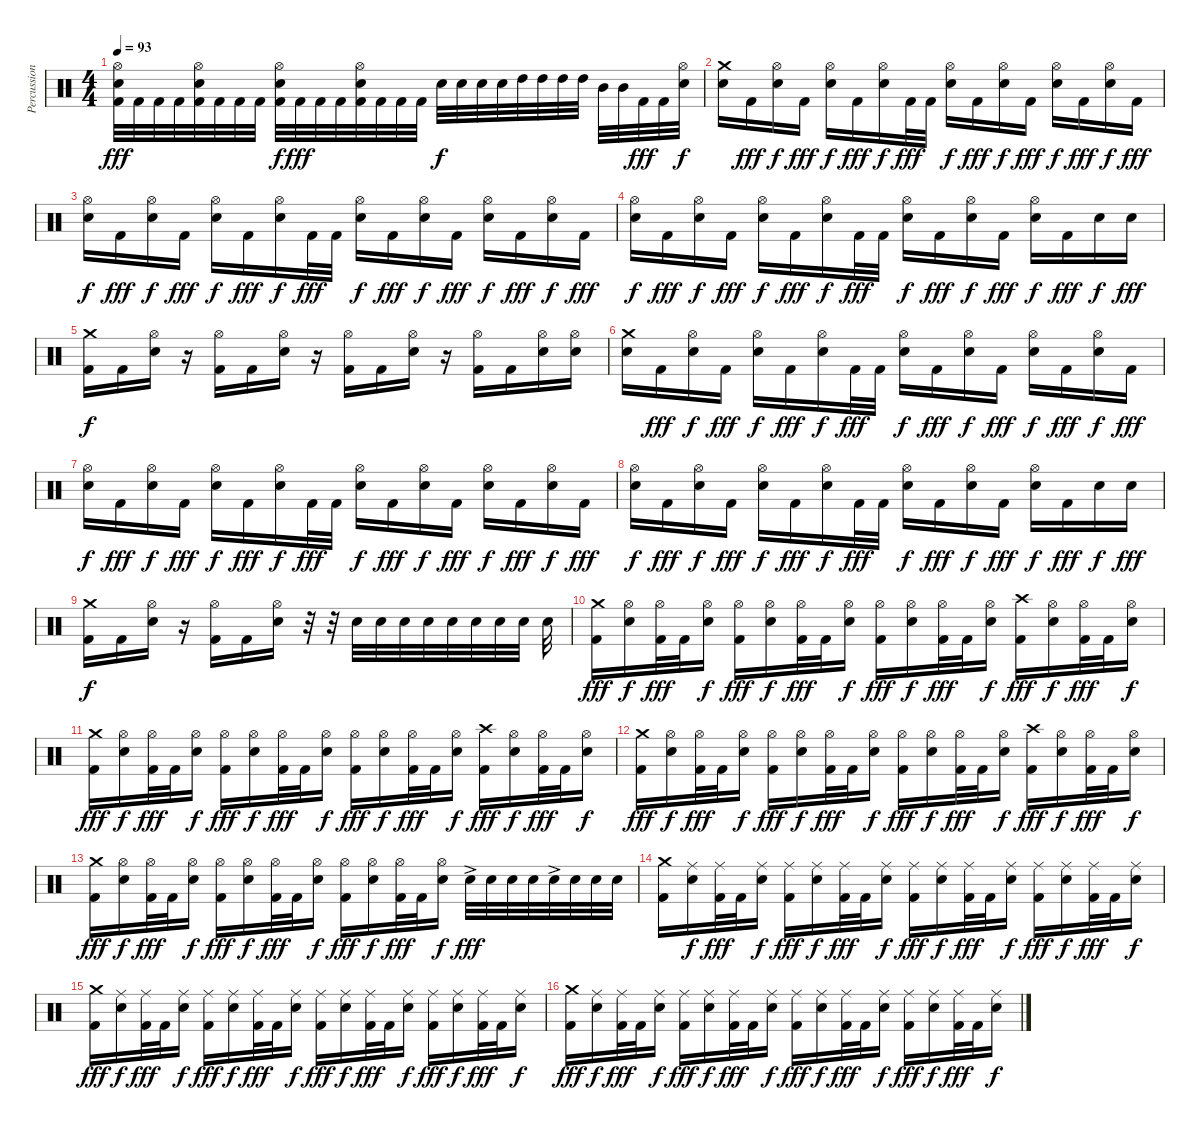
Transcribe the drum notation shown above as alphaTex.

\track ("Percussion" "Percussion") {instrument percussion}
\staff {score}
\articulation defaults
\ts (4 4)
\tempo 93
\clef neutral
\ks c
("Hi-Hat (open)" "Kick (hit) 2" "Snare (hit) 2").32{dy fff} "Kick (hit) 2".32 "Kick (hit) 2".32 "Kick (hit) 2".32 ("Hi-Hat (open)" "Kick (hit) 2" "Snare (hit) 2").32 "Kick (hit) 2".32 "Kick (hit) 2".32 "Kick (hit) 2".32 ("Hi-Hat (open)" "Kick (hit) 2" "Snare (hit) 2").32{dy f} "Kick (hit) 2".32{dy fff} "Kick (hit) 2".32 "Kick (hit) 2".32 ("Hi-Hat (open)" "Kick (hit) 2" "Snare (hit) 2").32 "Kick (hit) 2".32 "Kick (hit) 2".32 "Kick (hit) 2".32 "Snare (hit) 2".32{dy f} "Snare (hit) 2".32 "Snare (hit) 2".32 "Snare (hit) 2".32 "High Tom (hit)".32 "High Tom (hit)".32 "High Tom (hit)".32 "High Tom (hit)".32 "Mid Tom (hit)".32 "Mid Tom (hit)".32 "Kick (hit) 2".32{dy fff} "Kick (hit) 2".32 ("Hi-Hat (open)" "Snare (hit) 2").32{dy f} |
("Crash medium (hit)" "Snare (hit) 2").16 "Kick (hit) 2".16{dy fff} ("Hi-Hat (open)" "Snare (hit) 2").16{dy f} "Kick (hit) 2".16{dy fff} ("Hi-Hat (open)" "Snare (hit) 2").16{dy f} "Kick (hit) 2".16{dy fff} ("Hi-Hat (open)" "Snare (hit) 2").16{dy f} "Kick (hit) 2".32{dy fff} "Kick (hit) 2".32 ("Hi-Hat (open)" "Snare (hit) 2").16{dy f} "Kick (hit) 2".16{dy fff} ("Hi-Hat (open)" "Snare (hit) 2").16{dy f} "Kick (hit) 2".16{dy fff} ("Hi-Hat (open)" "Snare (hit) 2").16{dy f} "Kick (hit) 2".16{dy fff} ("Hi-Hat (open)" "Snare (hit) 2").16{dy f} "Kick (hit) 2".16{dy fff} |
("Hi-Hat (open)" "Snare (hit) 2").16{dy f} "Kick (hit) 2".16{dy fff} ("Hi-Hat (open)" "Snare (hit) 2").16{dy f} "Kick (hit) 2".16{dy fff} ("Hi-Hat (open)" "Snare (hit) 2").16{dy f} "Kick (hit) 2".16{dy fff} ("Hi-Hat (open)" "Snare (hit) 2").16{dy f} "Kick (hit) 2".32{dy fff} "Kick (hit) 2".32 ("Hi-Hat (open)" "Snare (hit) 2").16{dy f} "Kick (hit) 2".16{dy fff} ("Hi-Hat (open)" "Snare (hit) 2").16{dy f} "Kick (hit) 2".16{dy fff} ("Hi-Hat (open)" "Snare (hit) 2").16{dy f} "Kick (hit) 2".16{dy fff} ("Hi-Hat (open)" "Snare (hit) 2").16{dy f} "Kick (hit) 2".16{dy fff} |
("Hi-Hat (open)" "Snare (hit) 2").16{dy f} "Kick (hit) 2".16{dy fff} ("Hi-Hat (open)" "Snare (hit) 2").16{dy f} "Kick (hit) 2".16{dy fff} ("Hi-Hat (open)" "Snare (hit) 2").16{dy f} "Kick (hit) 2".16{dy fff} ("Hi-Hat (open)" "Snare (hit) 2").16{dy f} "Kick (hit) 2".32{dy fff} "Kick (hit) 2".32 ("Hi-Hat (open)" "Snare (hit) 2").16{dy f} "Kick (hit) 2".16{dy fff} ("Hi-Hat (open)" "Snare (hit) 2").16{dy f} "Kick (hit) 2".16{dy fff} ("Hi-Hat (open)" "Snare (hit) 2").16{dy f} "Kick (hit) 2".16{dy fff} "Snare (hit) 2".16{dy f} "Snare (hit) 2".16{dy fff} |
("Crash medium (hit)" "Kick (hit) 2").16{dy f} "Kick (hit) 2".16 ("Hi-Hat (open)" "Snare (hit) 2").16 r.16 ("Hi-Hat (open)" "Kick (hit) 2").16 "Kick (hit) 2".16 ("Hi-Hat (open)" "Snare (hit) 2").16 r.16 ("Hi-Hat (open)" "Kick (hit) 2").16 "Kick (hit) 2".16 ("Hi-Hat (open)" "Snare (hit) 2").16 r.16 ("Hi-Hat (open)" "Kick (hit) 2").16 "Kick (hit) 2".16 ("Hi-Hat (open)" "Snare (hit) 2").16 ("Hi-Hat (open)" "Snare (hit) 2").16 |
("Crash medium (hit)" "Snare (hit) 2").16 "Kick (hit) 2".16{dy fff} ("Hi-Hat (open)" "Snare (hit) 2").16{dy f} "Kick (hit) 2".16{dy fff} ("Hi-Hat (open)" "Snare (hit) 2").16{dy f} "Kick (hit) 2".16{dy fff} ("Hi-Hat (open)" "Snare (hit) 2").16{dy f} "Kick (hit) 2".32{dy fff} "Kick (hit) 2".32 ("Hi-Hat (open)" "Snare (hit) 2").16{dy f} "Kick (hit) 2".16{dy fff} ("Hi-Hat (open)" "Snare (hit) 2").16{dy f} "Kick (hit) 2".16{dy fff} ("Hi-Hat (open)" "Snare (hit) 2").16{dy f} "Kick (hit) 2".16{dy fff} ("Hi-Hat (open)" "Snare (hit) 2").16{dy f} "Kick (hit) 2".16{dy fff} |
("Hi-Hat (open)" "Snare (hit) 2").16{dy f} "Kick (hit) 2".16{dy fff} ("Hi-Hat (open)" "Snare (hit) 2").16{dy f} "Kick (hit) 2".16{dy fff} ("Hi-Hat (open)" "Snare (hit) 2").16{dy f} "Kick (hit) 2".16{dy fff} ("Hi-Hat (open)" "Snare (hit) 2").16{dy f} "Kick (hit) 2".32{dy fff} "Kick (hit) 2".32 ("Hi-Hat (open)" "Snare (hit) 2").16{dy f} "Kick (hit) 2".16{dy fff} ("Hi-Hat (open)" "Snare (hit) 2").16{dy f} "Kick (hit) 2".16{dy fff} ("Hi-Hat (open)" "Snare (hit) 2").16{dy f} "Kick (hit) 2".16{dy fff} ("Hi-Hat (open)" "Snare (hit) 2").16{dy f} "Kick (hit) 2".16{dy fff} |
("Hi-Hat (open)" "Snare (hit) 2").16{dy f} "Kick (hit) 2".16{dy fff} ("Hi-Hat (open)" "Snare (hit) 2").16{dy f} "Kick (hit) 2".16{dy fff} ("Hi-Hat (open)" "Snare (hit) 2").16{dy f} "Kick (hit) 2".16{dy fff} ("Hi-Hat (open)" "Snare (hit) 2").16{dy f} "Kick (hit) 2".32{dy fff} "Kick (hit) 2".32 ("Hi-Hat (open)" "Snare (hit) 2").16{dy f} "Kick (hit) 2".16{dy fff} ("Hi-Hat (open)" "Snare (hit) 2").16{dy f} "Kick (hit) 2".16{dy fff} ("Hi-Hat (open)" "Snare (hit) 2").16{dy f} "Kick (hit) 2".16{dy fff} "Snare (hit) 2".16{dy f} "Snare (hit) 2".16{dy fff} |
("Crash medium (hit)" "Kick (hit) 2").16{dy f} "Kick (hit) 2".16 ("Hi-Hat (open)" "Snare (hit) 2").16 r.16 ("Hi-Hat (open)" "Kick (hit) 2").16 "Kick (hit) 2".16 ("Hi-Hat (open)" "Snare (hit) 2").16 r.32 r.32 "Snare (hit) 2".32 "Snare (hit) 2".32 "Snare (hit) 2".32 "Snare (hit) 2".32 "Snare (hit) 2".32 "Snare (hit) 2".32 "Snare (hit) 2".32 "Snare (hit) 2".32 "Snare (hit) 2".32 |
("Crash medium (hit)" "Kick (hit) 2").16{dy fff} ("Hi-Hat (open)" "Snare (hit) 2").16{dy f} ("Hi-Hat (open)" "Kick (hit) 2").32{dy fff} "Kick (hit) 2".32 ("Hi-Hat (open)" "Snare (hit) 2").16{dy f} ("Hi-Hat (open)" "Kick (hit) 2").16{dy fff} ("Hi-Hat (open)" "Snare (hit) 2").16{dy f} ("Hi-Hat (open)" "Kick (hit) 2").32{dy fff} "Kick (hit) 2".32 ("Hi-Hat (open)" "Snare (hit) 2").16{dy f} ("Hi-Hat (open)" "Kick (hit) 2").16{dy fff} ("Hi-Hat (open)" "Snare (hit) 2").16{dy f} ("Hi-Hat (open)" "Kick (hit) 2").32{dy fff} "Kick (hit) 2".32 ("Hi-Hat (open)" "Snare (hit) 2").16{dy f} ("Crash high (hit)" "Kick (hit) 2").16{dy fff} ("Hi-Hat (open)" "Snare (hit) 2").16{dy f} ("Hi-Hat (open)" "Kick (hit) 2").32{dy fff} "Kick (hit) 2".32 ("Hi-Hat (open)" "Snare (hit) 2").16{dy f} |
("Crash medium (hit)" "Kick (hit) 2").16{dy fff} ("Hi-Hat (open)" "Snare (hit) 2").16{dy f} ("Hi-Hat (open)" "Kick (hit) 2").32{dy fff} "Kick (hit) 2".32 ("Hi-Hat (open)" "Snare (hit) 2").16{dy f} ("Hi-Hat (open)" "Kick (hit) 2").16{dy fff} ("Hi-Hat (open)" "Snare (hit) 2").16{dy f} ("Hi-Hat (open)" "Kick (hit) 2").32{dy fff} "Kick (hit) 2".32 ("Hi-Hat (open)" "Snare (hit) 2").16{dy f} ("Hi-Hat (open)" "Kick (hit) 2").16{dy fff} ("Hi-Hat (open)" "Snare (hit) 2").16{dy f} ("Hi-Hat (open)" "Kick (hit) 2").32{dy fff} "Kick (hit) 2".32 ("Hi-Hat (open)" "Snare (hit) 2").16{dy f} ("Crash high (hit)" "Kick (hit) 2").16{dy fff} ("Hi-Hat (open)" "Snare (hit) 2").16{dy f} ("Hi-Hat (open)" "Kick (hit) 2").32{dy fff} "Kick (hit) 2".32 ("Hi-Hat (open)" "Snare (hit) 2").16{dy f} |
("Crash medium (hit)" "Kick (hit) 2").16{dy fff} ("Hi-Hat (open)" "Snare (hit) 2").16{dy f} ("Hi-Hat (open)" "Kick (hit) 2").32{dy fff} "Kick (hit) 2".32 ("Hi-Hat (open)" "Snare (hit) 2").16{dy f} ("Hi-Hat (open)" "Kick (hit) 2").16{dy fff} ("Hi-Hat (open)" "Snare (hit) 2").16{dy f} ("Hi-Hat (open)" "Kick (hit) 2").32{dy fff} "Kick (hit) 2".32 ("Hi-Hat (open)" "Snare (hit) 2").16{dy f} ("Hi-Hat (open)" "Kick (hit) 2").16{dy fff} ("Hi-Hat (open)" "Snare (hit) 2").16{dy f} ("Hi-Hat (open)" "Kick (hit) 2").32{dy fff} "Kick (hit) 2".32 ("Hi-Hat (open)" "Snare (hit) 2").16{dy f} ("Crash high (hit)" "Kick (hit) 2").16{dy fff} ("Hi-Hat (open)" "Snare (hit) 2").16{dy f} ("Hi-Hat (open)" "Kick (hit) 2").32{dy fff} "Kick (hit) 2".32 ("Hi-Hat (open)" "Snare (hit) 2").16{dy f} |
("Crash medium (hit)" "Kick (hit) 2").16{dy fff} ("Hi-Hat (open)" "Snare (hit) 2").16{dy f} ("Hi-Hat (open)" "Kick (hit) 2").32{dy fff} "Kick (hit) 2".32 ("Hi-Hat (open)" "Snare (hit) 2").16{dy f} ("Hi-Hat (open)" "Kick (hit) 2").16{dy fff} ("Hi-Hat (open)" "Snare (hit) 2").16{dy f} ("Hi-Hat (open)" "Kick (hit) 2").32{dy fff} "Kick (hit) 2".32 ("Hi-Hat (open)" "Snare (hit) 2").16{dy f} ("Hi-Hat (open)" "Kick (hit) 2").16{dy fff} ("Hi-Hat (open)" "Snare (hit) 2").16{dy f} ("Hi-Hat (open)" "Kick (hit) 2").32{dy fff} "Kick (hit) 2".32 ("Hi-Hat (open)" "Snare (hit) 2").16{dy f} "Snare (hit) 2"{ac}.32{dy fff} "Snare (hit) 2".32 "Snare (hit) 2".32 "Snare (hit) 2".32 "Snare (hit) 2"{ac}.32 "Snare (hit) 2".32 "Snare (hit) 2".32 "Snare (hit) 2".32 |
("Crash medium (hit)" "Kick (hit) 2").16 ("Ride (middle)" "Snare (hit) 2").16{dy f} ("Ride (middle)" "Kick (hit) 2").32{dy fff} "Kick (hit) 2".32 ("Ride (middle)" "Snare (hit) 2").16{dy f} ("Ride (middle)" "Kick (hit) 2").16{dy fff} ("Ride (middle)" "Snare (hit) 2").16{dy f} ("Ride (middle)" "Kick (hit) 2").32{dy fff} "Kick (hit) 2".32 ("Ride (middle)" "Snare (hit) 2").16{dy f} ("Ride (middle)" "Kick (hit) 2").16{dy fff} ("Ride (middle)" "Snare (hit) 2").16{dy f} ("Ride (middle)" "Kick (hit) 2").32{dy fff} "Kick (hit) 2".32 ("Ride (middle)" "Snare (hit) 2").16{dy f} ("Ride (middle)" "Kick (hit) 2").16{dy fff} ("Ride (middle)" "Snare (hit) 2").16{dy f} ("Ride (middle)" "Kick (hit) 2").32{dy fff} "Kick (hit) 2".32 ("Ride (middle)" "Snare (hit) 2").16{dy f} |
("Crash medium (hit)" "Kick (hit) 2").16{dy fff} ("Ride (middle)" "Snare (hit) 2").16{dy f} ("Ride (middle)" "Kick (hit) 2").32{dy fff} "Kick (hit) 2".32 ("Ride (middle)" "Snare (hit) 2").16{dy f} ("Ride (middle)" "Kick (hit) 2").16{dy fff} ("Ride (middle)" "Snare (hit) 2").16{dy f} ("Ride (middle)" "Kick (hit) 2").32{dy fff} "Kick (hit) 2".32 ("Ride (middle)" "Snare (hit) 2").16{dy f} ("Ride (middle)" "Kick (hit) 2").16{dy fff} ("Ride (middle)" "Snare (hit) 2").16{dy f} ("Ride (middle)" "Kick (hit) 2").32{dy fff} "Kick (hit) 2".32 ("Ride (middle)" "Snare (hit) 2").16{dy f} ("Ride (middle)" "Kick (hit) 2").16{dy fff} ("Ride (middle)" "Snare (hit) 2").16{dy f} ("Ride (middle)" "Kick (hit) 2").32{dy fff} "Kick (hit) 2".32 ("Ride (middle)" "Snare (hit) 2").16{dy f} |
("Crash medium (hit)" "Kick (hit) 2").16{dy fff} ("Ride (middle)" "Snare (hit) 2").16{dy f} ("Ride (middle)" "Kick (hit) 2").32{dy fff} "Kick (hit) 2".32 ("Ride (middle)" "Snare (hit) 2").16{dy f} ("Ride (middle)" "Kick (hit) 2").16{dy fff} ("Ride (middle)" "Snare (hit) 2").16{dy f} ("Ride (middle)" "Kick (hit) 2").32{dy fff} "Kick (hit) 2".32 ("Ride (middle)" "Snare (hit) 2").16{dy f} ("Ride (middle)" "Kick (hit) 2").16{dy fff} ("Ride (middle)" "Snare (hit) 2").16{dy f} ("Ride (middle)" "Kick (hit) 2").32{dy fff} "Kick (hit) 2".32 ("Ride (middle)" "Snare (hit) 2").16{dy f} ("Ride (middle)" "Kick (hit) 2").16{dy fff} ("Ride (middle)" "Snare (hit) 2").16{dy f} ("Ride (middle)" "Kick (hit) 2").32{dy fff} "Kick (hit) 2".32 ("Ride (middle)" "Snare (hit) 2").16{dy f}
